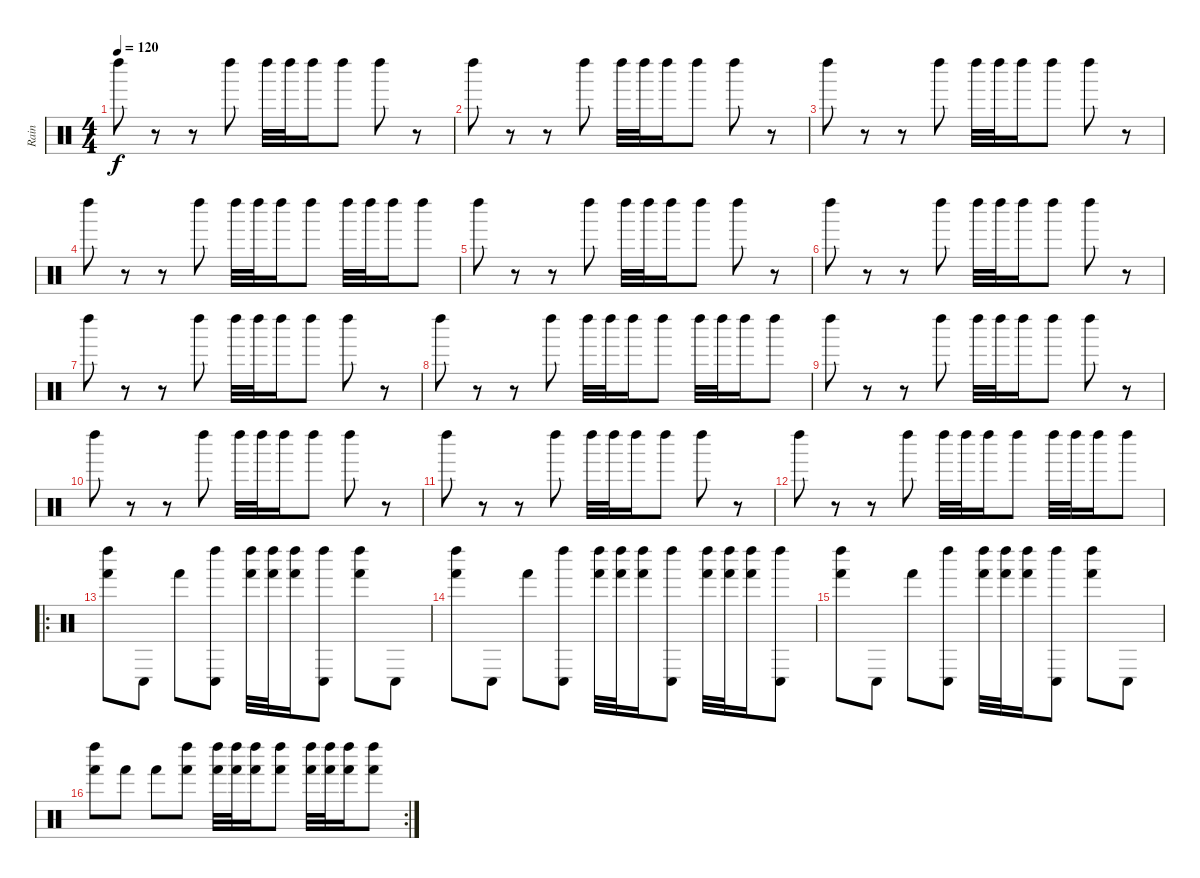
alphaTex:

\track ("Rain" "Rain") {instrument percussion}
\staff {score}
\articulation defaults
\ts (4 4)
\tempo 120
\clef neutral
\ks c "Left Maraca (hit)".8{dy f}
r.8 r.8 "Left Maraca (hit)".8 "Left Maraca (hit)".32 "Left Maraca (hit)".32 "Left Maraca (hit)".16 "Left Maraca (hit)".8 "Left Maraca (hit)".8 r.8 |
"Left Maraca (hit)".8 r.8 r.8 "Left Maraca (hit)".8 "Left Maraca (hit)".32 "Left Maraca (hit)".32 "Left Maraca (hit)".16 "Left Maraca (hit)".8 "Left Maraca (hit)".8 r.8 |
"Left Maraca (hit)".8 r.8 r.8 "Left Maraca (hit)".8 "Left Maraca (hit)".32 "Left Maraca (hit)".32 "Left Maraca (hit)".16 "Left Maraca (hit)".8 "Left Maraca (hit)".8 r.8 |
"Left Maraca (hit)".8 r.8 r.8 "Left Maraca (hit)".8 "Left Maraca (hit)".32 "Left Maraca (hit)".32 "Left Maraca (hit)".16 "Left Maraca (hit)".8 "Left Maraca (hit)".32 "Left Maraca (hit)".32 "Left Maraca (hit)".16 "Left Maraca (hit)".8 |
"Left Maraca (hit)".8 r.8 r.8 "Left Maraca (hit)".8 "Left Maraca (hit)".32 "Left Maraca (hit)".32 "Left Maraca (hit)".16 "Left Maraca (hit)".8 "Left Maraca (hit)".8 r.8 |
"Left Maraca (hit)".8 r.8 r.8 "Left Maraca (hit)".8 "Left Maraca (hit)".32 "Left Maraca (hit)".32 "Left Maraca (hit)".16 "Left Maraca (hit)".8 "Left Maraca (hit)".8 r.8 |
"Left Maraca (hit)".8 r.8 r.8 "Left Maraca (hit)".8 "Left Maraca (hit)".32 "Left Maraca (hit)".32 "Left Maraca (hit)".16 "Left Maraca (hit)".8 "Left Maraca (hit)".8 r.8 |
"Left Maraca (hit)".8 r.8 r.8 "Left Maraca (hit)".8 "Left Maraca (hit)".32 "Left Maraca (hit)".32 "Left Maraca (hit)".16 "Left Maraca (hit)".8 "Left Maraca (hit)".32 "Left Maraca (hit)".32 "Left Maraca (hit)".16 "Left Maraca (hit)".8 |
"Left Maraca (hit)".8 r.8 r.8 "Left Maraca (hit)".8 "Left Maraca (hit)".32 "Left Maraca (hit)".32 "Left Maraca (hit)".16 "Left Maraca (hit)".8 "Left Maraca (hit)".8 r.8 |
"Left Maraca (hit)".8 r.8 r.8 "Left Maraca (hit)".8 "Left Maraca (hit)".32 "Left Maraca (hit)".32 "Left Maraca (hit)".16 "Left Maraca (hit)".8 "Left Maraca (hit)".8 r.8 |
"Left Maraca (hit)".8 r.8 r.8 "Left Maraca (hit)".8 "Left Maraca (hit)".32 "Left Maraca (hit)".32 "Left Maraca (hit)".16 "Left Maraca (hit)".8 "Left Maraca (hit)".8 r.8 |
"Left Maraca (hit)".8 r.8 r.8 "Left Maraca (hit)".8 "Left Maraca (hit)".32 "Left Maraca (hit)".32 "Left Maraca (hit)".16 "Left Maraca (hit)".8 "Left Maraca (hit)".32 "Left Maraca (hit)".32 "Left Maraca (hit)".16 "Left Maraca (hit)".8 |
\ro
("Left Maraca (hit)" "Hand (hit)").8 "Conga low (hit)".8 "Hand (hit)".8 ("Left Maraca (hit)" "Conga low (hit)").8 ("Left Maraca (hit)" "Hand (hit)").32 ("Left Maraca (hit)" "Hand (hit)").32 ("Left Maraca (hit)" "Hand (hit)").16 ("Left Maraca (hit)" "Conga low (hit)").8 ("Left Maraca (hit)" "Hand (hit)").8 "Conga low (hit)".8 |
("Left Maraca (hit)" "Hand (hit)").8 "Conga low (hit)".8 "Hand (hit)".8 ("Left Maraca (hit)" "Conga low (hit)").8 ("Left Maraca (hit)" "Hand (hit)").32 ("Left Maraca (hit)" "Hand (hit)").32 ("Left Maraca (hit)" "Hand (hit)").16 ("Left Maraca (hit)" "Conga low (hit)").8 ("Left Maraca (hit)" "Hand (hit)").32 ("Left Maraca (hit)" "Hand (hit)").32 ("Left Maraca (hit)" "Hand (hit)").16 ("Left Maraca (hit)" "Conga low (hit)").8 |
("Left Maraca (hit)" "Hand (hit)").8 "Conga low (hit)".8 "Hand (hit)".8 ("Left Maraca (hit)" "Conga low (hit)").8 ("Left Maraca (hit)" "Hand (hit)").32 ("Left Maraca (hit)" "Hand (hit)").32 ("Left Maraca (hit)" "Hand (hit)").16 ("Left Maraca (hit)" "Conga low (hit)").8 ("Left Maraca (hit)" "Hand (hit)").8 "Conga low (hit)".8 |
\rc 2
("Left Maraca (hit)" "Hand (hit)").8 "Hand (hit)".8 "Hand (hit)".8 ("Left Maraca (hit)" "Hand (hit)").8 ("Left Maraca (hit)" "Hand (hit)").32 ("Left Maraca (hit)" "Hand (hit)").32 ("Left Maraca (hit)" "Hand (hit)").16 ("Left Maraca (hit)" "Hand (hit)").8 ("Left Maraca (hit)" "Hand (hit)").32 ("Left Maraca (hit)" "Hand (hit)").32 ("Left Maraca (hit)" "Hand (hit)").16 ("Left Maraca (hit)" "Hand (hit)").8
